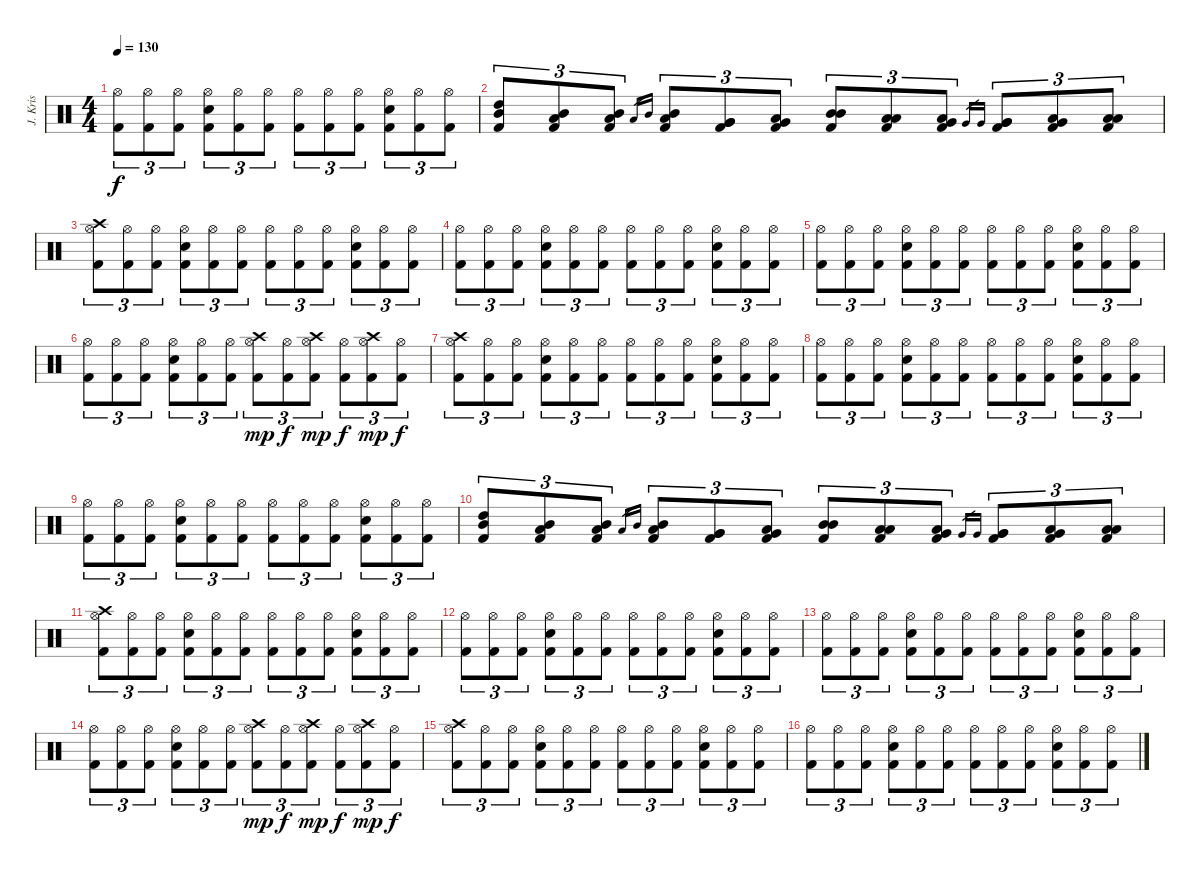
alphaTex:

\track ("   J. Kristensson (drums)" "   J. Kris") {instrument percussion}
\staff {score}
\articulation defaults
\ts (4 4)
\tempo 130
\clef neutral
\ks c
("Hi-Hat (open)" "Kick (hit) 2").8{tu (3 2) dy f} ("Hi-Hat (open)" "Kick (hit) 2").8{tu (3 2)} ("Hi-Hat (open)" "Kick (hit) 2").8{tu (3 2)} ("Hi-Hat (open)" "Electric Snare (hit)" "Kick (hit) 2").8{tu (3 2)} ("Hi-Hat (open)" "Kick (hit) 2").8{tu (3 2)} ("Hi-Hat (open)" "Kick (hit) 2").8{tu (3 2)} ("Hi-Hat (open)" "Kick (hit) 2").8{tu (3 2)} ("Hi-Hat (open)" "Kick (hit) 2").8{tu (3 2)} ("Hi-Hat (open)" "Kick (hit) 2").8{tu (3 2)} ("Hi-Hat (open)" "Electric Snare (hit)" "Kick (hit) 2").8{tu (3 2)} ("Hi-Hat (open)" "Kick (hit) 2").8{tu (3 2)} ("Hi-Hat (open)" "Kick (hit) 2").8{tu (3 2)} |
("High Tom (hit)" "Mid Tom (hit)" "Kick (hit) 2").8{tu (3 2)} ("Mid Tom (hit)" "Low Tom (hit)" "Kick (hit) 2").8{tu (3 2)} ("Low Tom (hit)" "Mid Tom (hit)" "Kick (hit) 2").8{tu (3 2)} "Low Tom (hit)".16{gr} "Mid Tom (hit)".16{gr} ("Low Tom (hit)" "Mid Tom (hit)" "Kick (hit) 2").8{tu (3 2)} ("Very Low Tom (hit)" "Very Low Tom (hit)" "Kick (hit) 2").8{tu (3 2)} ("Low Floor Tom (hit)" "Very Low Tom (hit)" "Kick (hit) 2").8{tu (3 2)} ("Mid Tom (hit)" "Mid Tom (hit)" "Kick (hit) 2").8{tu (3 2)} ("Low Tom (hit)" "Low Tom (hit)" "Kick (hit) 2").8{tu (3 2)} ("Very Low Tom (hit)" "Low Tom (hit)" "Kick (hit) 2").8{tu (3 2)} "Very Low Tom (hit)".16{gr} "Very Low Tom (hit)".16{gr} ("Very Low Tom (hit)" "Very Low Tom (hit)" "Kick (hit) 2").8{tu (3 2)} ("Low Floor Tom (hit)" "Very Low Tom (hit)" "Kick (hit) 2").8{tu (3 2)} ("Low Floor Tom (hit)" "Low Floor Tom (hit)" "Kick (hit) 2").8{tu (3 2)} |
("Hi-Hat (open)" "Crash high (hit)" "Kick (hit) 2").8{tu (3 2)} ("Hi-Hat (open)" "Kick (hit) 2").8{tu (3 2)} ("Hi-Hat (open)" "Kick (hit) 2").8{tu (3 2)} ("Hi-Hat (open)" "Electric Snare (hit)" "Kick (hit) 2").8{tu (3 2)} ("Hi-Hat (open)" "Kick (hit) 2").8{tu (3 2)} ("Hi-Hat (open)" "Kick (hit) 2").8{tu (3 2)} ("Hi-Hat (open)" "Kick (hit) 2").8{tu (3 2)} ("Hi-Hat (open)" "Kick (hit) 2").8{tu (3 2)} ("Hi-Hat (open)" "Kick (hit) 2").8{tu (3 2)} ("Hi-Hat (open)" "Electric Snare (hit)" "Kick (hit) 2").8{tu (3 2)} ("Hi-Hat (open)" "Kick (hit) 2").8{tu (3 2)} ("Hi-Hat (open)" "Kick (hit) 2").8{tu (3 2)} |
("Hi-Hat (open)" "Kick (hit) 2").8{tu (3 2)} ("Hi-Hat (open)" "Kick (hit) 2").8{tu (3 2)} ("Hi-Hat (open)" "Kick (hit) 2").8{tu (3 2)} ("Hi-Hat (open)" "Electric Snare (hit)" "Kick (hit) 2").8{tu (3 2)} ("Hi-Hat (open)" "Kick (hit) 2").8{tu (3 2)} ("Hi-Hat (open)" "Kick (hit) 2").8{tu (3 2)} ("Hi-Hat (open)" "Kick (hit) 2").8{tu (3 2)} ("Hi-Hat (open)" "Kick (hit) 2").8{tu (3 2)} ("Hi-Hat (open)" "Kick (hit) 2").8{tu (3 2)} ("Hi-Hat (open)" "Electric Snare (hit)" "Kick (hit) 2").8{tu (3 2)} ("Hi-Hat (open)" "Kick (hit) 2").8{tu (3 2)} ("Hi-Hat (open)" "Kick (hit) 2").8{tu (3 2)} |
("Hi-Hat (open)" "Kick (hit) 2").8{tu (3 2)} ("Hi-Hat (open)" "Kick (hit) 2").8{tu (3 2)} ("Hi-Hat (open)" "Kick (hit) 2").8{tu (3 2)} ("Hi-Hat (open)" "Electric Snare (hit)" "Kick (hit) 2").8{tu (3 2)} ("Hi-Hat (open)" "Kick (hit) 2").8{tu (3 2)} ("Hi-Hat (open)" "Kick (hit) 2").8{tu (3 2)} ("Hi-Hat (open)" "Kick (hit) 2").8{tu (3 2)} ("Hi-Hat (open)" "Kick (hit) 2").8{tu (3 2)} ("Hi-Hat (open)" "Kick (hit) 2").8{tu (3 2)} ("Hi-Hat (open)" "Electric Snare (hit)" "Kick (hit) 2").8{tu (3 2)} ("Hi-Hat (open)" "Kick (hit) 2").8{tu (3 2)} ("Hi-Hat (open)" "Kick (hit) 2").8{tu (3 2)} |
("Hi-Hat (open)" "Kick (hit) 2").8{tu (3 2)} ("Hi-Hat (open)" "Kick (hit) 2").8{tu (3 2)} ("Hi-Hat (open)" "Kick (hit) 2").8{tu (3 2)} ("Hi-Hat (open)" "Electric Snare (hit)" "Kick (hit) 2").8{tu (3 2)} ("Hi-Hat (open)" "Kick (hit) 2").8{tu (3 2)} ("Hi-Hat (open)" "Kick (hit) 2").8{tu (3 2)} ("Hi-Hat (open)" "Crash high (hit)" "Kick (hit) 2").8{tu (3 2) dy mp} ("Hi-Hat (open)" "Kick (hit) 2").8{tu (3 2) dy f} ("Hi-Hat (open)" "Crash high (hit)" "Kick (hit) 2").8{tu (3 2) dy mp} ("Hi-Hat (open)" "Kick (hit) 2").8{tu (3 2) dy f} ("Hi-Hat (open)" "Crash high (hit)" "Kick (hit) 2").8{tu (3 2) dy mp} ("Hi-Hat (open)" "Kick (hit) 2").8{tu (3 2) dy f} |
("Hi-Hat (open)" "Crash high (hit)" "Kick (hit) 2").8{tu (3 2)} ("Hi-Hat (open)" "Kick (hit) 2").8{tu (3 2)} ("Hi-Hat (open)" "Kick (hit) 2").8{tu (3 2)} ("Hi-Hat (open)" "Electric Snare (hit)" "Kick (hit) 2").8{tu (3 2)} ("Hi-Hat (open)" "Kick (hit) 2").8{tu (3 2)} ("Hi-Hat (open)" "Kick (hit) 2").8{tu (3 2)} ("Hi-Hat (open)" "Kick (hit) 2").8{tu (3 2)} ("Hi-Hat (open)" "Kick (hit) 2").8{tu (3 2)} ("Hi-Hat (open)" "Kick (hit) 2").8{tu (3 2)} ("Hi-Hat (open)" "Electric Snare (hit)" "Kick (hit) 2").8{tu (3 2)} ("Hi-Hat (open)" "Kick (hit) 2").8{tu (3 2)} ("Hi-Hat (open)" "Kick (hit) 2").8{tu (3 2)} |
("Hi-Hat (open)" "Kick (hit) 2").8{tu (3 2)} ("Hi-Hat (open)" "Kick (hit) 2").8{tu (3 2)} ("Hi-Hat (open)" "Kick (hit) 2").8{tu (3 2)} ("Hi-Hat (open)" "Electric Snare (hit)" "Kick (hit) 2").8{tu (3 2)} ("Hi-Hat (open)" "Kick (hit) 2").8{tu (3 2)} ("Hi-Hat (open)" "Kick (hit) 2").8{tu (3 2)} ("Hi-Hat (open)" "Kick (hit) 2").8{tu (3 2)} ("Hi-Hat (open)" "Kick (hit) 2").8{tu (3 2)} ("Hi-Hat (open)" "Kick (hit) 2").8{tu (3 2)} ("Hi-Hat (open)" "Electric Snare (hit)" "Kick (hit) 2").8{tu (3 2)} ("Hi-Hat (open)" "Kick (hit) 2").8{tu (3 2)} ("Hi-Hat (open)" "Kick (hit) 2").8{tu (3 2)} |
("Hi-Hat (open)" "Kick (hit) 2").8{tu (3 2)} ("Hi-Hat (open)" "Kick (hit) 2").8{tu (3 2)} ("Hi-Hat (open)" "Kick (hit) 2").8{tu (3 2)} ("Hi-Hat (open)" "Electric Snare (hit)" "Kick (hit) 2").8{tu (3 2)} ("Hi-Hat (open)" "Kick (hit) 2").8{tu (3 2)} ("Hi-Hat (open)" "Kick (hit) 2").8{tu (3 2)} ("Hi-Hat (open)" "Kick (hit) 2").8{tu (3 2)} ("Hi-Hat (open)" "Kick (hit) 2").8{tu (3 2)} ("Hi-Hat (open)" "Kick (hit) 2").8{tu (3 2)} ("Hi-Hat (open)" "Electric Snare (hit)" "Kick (hit) 2").8{tu (3 2)} ("Hi-Hat (open)" "Kick (hit) 2").8{tu (3 2)} ("Hi-Hat (open)" "Kick (hit) 2").8{tu (3 2)} |
("High Tom (hit)" "Mid Tom (hit)" "Kick (hit) 2").8{tu (3 2)} ("Mid Tom (hit)" "Low Tom (hit)" "Kick (hit) 2").8{tu (3 2)} ("Low Tom (hit)" "Mid Tom (hit)" "Kick (hit) 2").8{tu (3 2)} "Low Tom (hit)".16{gr} "Mid Tom (hit)".16{gr} ("Low Tom (hit)" "Mid Tom (hit)" "Kick (hit) 2").8{tu (3 2)} ("Very Low Tom (hit)" "Very Low Tom (hit)" "Kick (hit) 2").8{tu (3 2)} ("Low Floor Tom (hit)" "Very Low Tom (hit)" "Kick (hit) 2").8{tu (3 2)} ("Mid Tom (hit)" "Mid Tom (hit)" "Kick (hit) 2").8{tu (3 2)} ("Low Tom (hit)" "Low Tom (hit)" "Kick (hit) 2").8{tu (3 2)} ("Very Low Tom (hit)" "Low Tom (hit)" "Kick (hit) 2").8{tu (3 2)} "Very Low Tom (hit)".16{gr} "Very Low Tom (hit)".16{gr} ("Very Low Tom (hit)" "Very Low Tom (hit)" "Kick (hit) 2").8{tu (3 2)} ("Low Floor Tom (hit)" "Very Low Tom (hit)" "Kick (hit) 2").8{tu (3 2)} ("Low Floor Tom (hit)" "Low Floor Tom (hit)" "Kick (hit) 2").8{tu (3 2)} |
("Hi-Hat (open)" "Crash high (hit)" "Kick (hit) 2").8{tu (3 2)} ("Hi-Hat (open)" "Kick (hit) 2").8{tu (3 2)} ("Hi-Hat (open)" "Kick (hit) 2").8{tu (3 2)} ("Hi-Hat (open)" "Electric Snare (hit)" "Kick (hit) 2").8{tu (3 2)} ("Hi-Hat (open)" "Kick (hit) 2").8{tu (3 2)} ("Hi-Hat (open)" "Kick (hit) 2").8{tu (3 2)} ("Hi-Hat (open)" "Kick (hit) 2").8{tu (3 2)} ("Hi-Hat (open)" "Kick (hit) 2").8{tu (3 2)} ("Hi-Hat (open)" "Kick (hit) 2").8{tu (3 2)} ("Hi-Hat (open)" "Electric Snare (hit)" "Kick (hit) 2").8{tu (3 2)} ("Hi-Hat (open)" "Kick (hit) 2").8{tu (3 2)} ("Hi-Hat (open)" "Kick (hit) 2").8{tu (3 2)} |
("Hi-Hat (open)" "Kick (hit) 2").8{tu (3 2)} ("Hi-Hat (open)" "Kick (hit) 2").8{tu (3 2)} ("Hi-Hat (open)" "Kick (hit) 2").8{tu (3 2)} ("Hi-Hat (open)" "Electric Snare (hit)" "Kick (hit) 2").8{tu (3 2)} ("Hi-Hat (open)" "Kick (hit) 2").8{tu (3 2)} ("Hi-Hat (open)" "Kick (hit) 2").8{tu (3 2)} ("Hi-Hat (open)" "Kick (hit) 2").8{tu (3 2)} ("Hi-Hat (open)" "Kick (hit) 2").8{tu (3 2)} ("Hi-Hat (open)" "Kick (hit) 2").8{tu (3 2)} ("Hi-Hat (open)" "Electric Snare (hit)" "Kick (hit) 2").8{tu (3 2)} ("Hi-Hat (open)" "Kick (hit) 2").8{tu (3 2)} ("Hi-Hat (open)" "Kick (hit) 2").8{tu (3 2)} |
("Hi-Hat (open)" "Kick (hit) 2").8{tu (3 2)} ("Hi-Hat (open)" "Kick (hit) 2").8{tu (3 2)} ("Hi-Hat (open)" "Kick (hit) 2").8{tu (3 2)} ("Hi-Hat (open)" "Electric Snare (hit)" "Kick (hit) 2").8{tu (3 2)} ("Hi-Hat (open)" "Kick (hit) 2").8{tu (3 2)} ("Hi-Hat (open)" "Kick (hit) 2").8{tu (3 2)} ("Hi-Hat (open)" "Kick (hit) 2").8{tu (3 2)} ("Hi-Hat (open)" "Kick (hit) 2").8{tu (3 2)} ("Hi-Hat (open)" "Kick (hit) 2").8{tu (3 2)} ("Hi-Hat (open)" "Electric Snare (hit)" "Kick (hit) 2").8{tu (3 2)} ("Hi-Hat (open)" "Kick (hit) 2").8{tu (3 2)} ("Hi-Hat (open)" "Kick (hit) 2").8{tu (3 2)} |
("Hi-Hat (open)" "Kick (hit) 2").8{tu (3 2)} ("Hi-Hat (open)" "Kick (hit) 2").8{tu (3 2)} ("Hi-Hat (open)" "Kick (hit) 2").8{tu (3 2)} ("Hi-Hat (open)" "Electric Snare (hit)" "Kick (hit) 2").8{tu (3 2)} ("Hi-Hat (open)" "Kick (hit) 2").8{tu (3 2)} ("Hi-Hat (open)" "Kick (hit) 2").8{tu (3 2)} ("Hi-Hat (open)" "Crash high (hit)" "Kick (hit) 2").8{tu (3 2) dy mp} ("Hi-Hat (open)" "Kick (hit) 2").8{tu (3 2) dy f} ("Hi-Hat (open)" "Crash high (hit)" "Kick (hit) 2").8{tu (3 2) dy mp} ("Hi-Hat (open)" "Kick (hit) 2").8{tu (3 2) dy f} ("Hi-Hat (open)" "Crash high (hit)" "Kick (hit) 2").8{tu (3 2) dy mp} ("Hi-Hat (open)" "Kick (hit) 2").8{tu (3 2) dy f} |
("Hi-Hat (open)" "Crash high (hit)" "Kick (hit) 2").8{tu (3 2)} ("Hi-Hat (open)" "Kick (hit) 2").8{tu (3 2)} ("Hi-Hat (open)" "Kick (hit) 2").8{tu (3 2)} ("Hi-Hat (open)" "Electric Snare (hit)" "Kick (hit) 2").8{tu (3 2)} ("Hi-Hat (open)" "Kick (hit) 2").8{tu (3 2)} ("Hi-Hat (open)" "Kick (hit) 2").8{tu (3 2)} ("Hi-Hat (open)" "Kick (hit) 2").8{tu (3 2)} ("Hi-Hat (open)" "Kick (hit) 2").8{tu (3 2)} ("Hi-Hat (open)" "Kick (hit) 2").8{tu (3 2)} ("Hi-Hat (open)" "Electric Snare (hit)" "Kick (hit) 2").8{tu (3 2)} ("Hi-Hat (open)" "Kick (hit) 2").8{tu (3 2)} ("Hi-Hat (open)" "Kick (hit) 2").8{tu (3 2)} |
("Hi-Hat (open)" "Kick (hit) 2").8{tu (3 2)} ("Hi-Hat (open)" "Kick (hit) 2").8{tu (3 2)} ("Hi-Hat (open)" "Kick (hit) 2").8{tu (3 2)} ("Hi-Hat (open)" "Electric Snare (hit)" "Kick (hit) 2").8{tu (3 2)} ("Hi-Hat (open)" "Kick (hit) 2").8{tu (3 2)} ("Hi-Hat (open)" "Kick (hit) 2").8{tu (3 2)} ("Hi-Hat (open)" "Kick (hit) 2").8{tu (3 2)} ("Hi-Hat (open)" "Kick (hit) 2").8{tu (3 2)} ("Hi-Hat (open)" "Kick (hit) 2").8{tu (3 2)} ("Hi-Hat (open)" "Electric Snare (hit)" "Kick (hit) 2").8{tu (3 2)} ("Hi-Hat (open)" "Kick (hit) 2").8{tu (3 2)} ("Hi-Hat (open)" "Kick (hit) 2").8{tu (3 2)}
